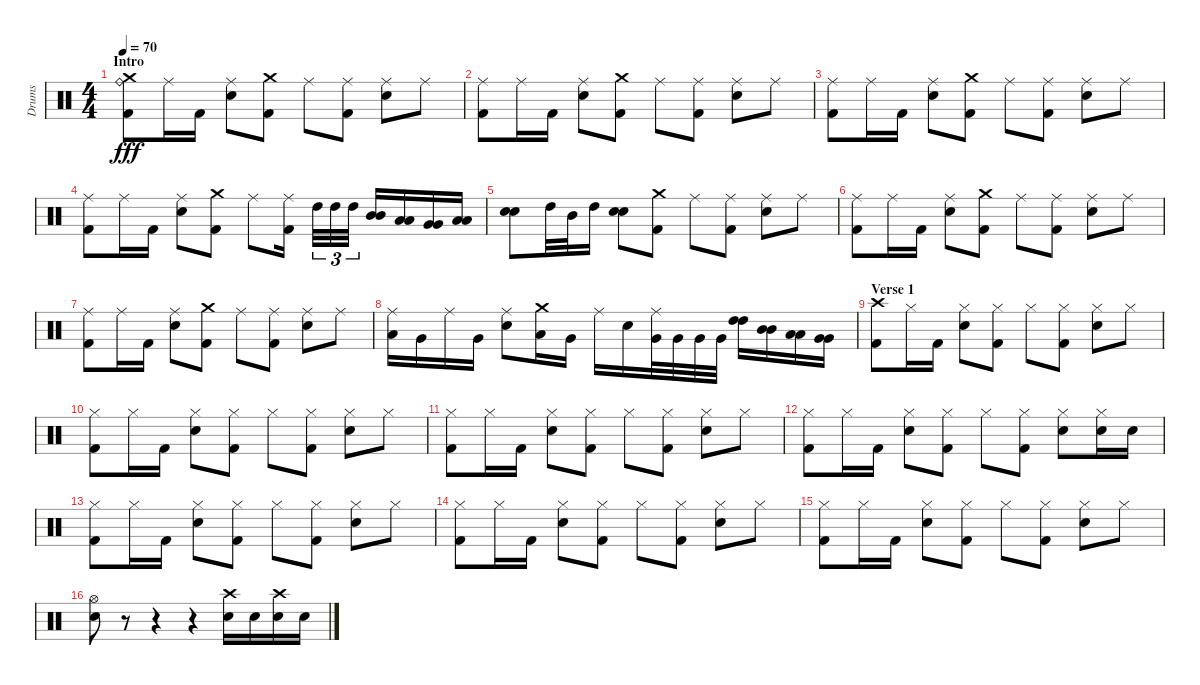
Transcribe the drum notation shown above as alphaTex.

\track ("Drums" "Drums") {instrument percussion}
\staff {score}
\articulation defaults
\ts (4 4)
\section ("" "Intro")
\tempo 70
\clef neutral
\ks c
("Crash medium (hit)" "Ride (bell)" "Kick (hit) 2").8{dy fff} "Ride (middle)".16 "Kick (hit) 2".16 ("Ride (middle)" "Electric Snare (hit)").8 ("Crash medium (hit)" "Kick (hit) 2").8 "Ride (middle)".8 ("Ride (middle)" "Kick (hit) 2").8 ("Ride (middle)" "Electric Snare (hit)").8 "Ride (middle)".8 |
("Ride (middle)" "Kick (hit) 2").8 "Ride (middle)".16 "Kick (hit) 2".16 ("Ride (middle)" "Electric Snare (hit)").8 ("Crash medium (hit)" "Kick (hit) 2").8 "Ride (middle)".8 ("Ride (middle)" "Kick (hit) 2").8 ("Ride (middle)" "Electric Snare (hit)").8 "Ride (middle)".8 |
("Ride (middle)" "Kick (hit) 2").8 "Ride (middle)".16 "Kick (hit) 2".16 ("Ride (middle)" "Electric Snare (hit)").8 ("Crash medium (hit)" "Kick (hit) 2").8 "Ride (middle)".8 ("Ride (middle)" "Kick (hit) 2").8 ("Ride (middle)" "Electric Snare (hit)").8 "Ride (middle)".8 |
("Ride (middle)" "Kick (hit) 2").8 "Ride (middle)".16 "Kick (hit) 2".16 ("Ride (middle)" "Electric Snare (hit)").8 ("Crash medium (hit)" "Kick (hit) 2").8 "Ride (middle)".8 ("Ride (middle)" "Kick (hit) 2").16 "High Tom (hit)".32{tu (3 2)} "High Tom (hit)".32{tu (3 2)} "High Tom (hit)".32{tu (3 2)} ("Mid Tom (hit)" "Mid Tom (hit)").16 ("Low Tom (hit)" "Low Tom (hit)").16 ("Very Low Tom (hit)" "Very Low Tom (hit)").16 ("Low Floor Tom (hit)" "Low Floor Tom (hit)").16 |
("Electric Snare (hit)" "Electric Snare (hit)").8 "High Tom (hit)".32 "Mid Tom (hit)".32 "High Tom (hit)".16 ("Electric Snare (hit)" "Electric Snare (hit)").8 ("Crash medium (hit)" "Kick (hit) 2").8 "Ride (middle)".8 ("Ride (middle)" "Kick (hit) 2").8 ("Ride (middle)" "Electric Snare (hit)").8 "Ride (middle)".8 |
("Ride (middle)" "Kick (hit) 2").8 "Ride (middle)".16 "Kick (hit) 2".16 ("Ride (middle)" "Electric Snare (hit)").8 ("Crash medium (hit)" "Kick (hit) 2").8 "Ride (middle)".8 ("Ride (middle)" "Kick (hit) 2").8 ("Ride (middle)" "Electric Snare (hit)").8 "Ride (middle)".8 |
("Ride (middle)" "Kick (hit) 2").8 "Ride (middle)".16 "Kick (hit) 2".16 ("Ride (middle)" "Electric Snare (hit)").8 ("Crash medium (hit)" "Kick (hit) 2").8 "Ride (middle)".8 ("Ride (middle)" "Kick (hit) 2").8 ("Ride (middle)" "Electric Snare (hit)").8 "Ride (middle)".8 |
("Low Tom (hit)" "Ride (middle)").16 "Very Low Tom (hit)".16 "Ride (middle)".16 "Very Low Tom (hit)".16 ("Ride (middle)" "Electric Snare (hit)").8 ("Crash medium (hit)" "Low Tom (hit)").16 "Very Low Tom (hit)".16 "Ride (middle)".16 "Electric Snare (hit)".16 ("Very Low Tom (hit)" "Ride (middle)").32 "Very Low Tom (hit)".32 "Very Low Tom (hit)".32 "Very Low Tom (hit)".32 ("High Tom (hit)" "High Tom (hit)").16 ("Mid Tom (hit)" "Mid Tom (hit)").16 ("Low Tom (hit)" "Low Tom (hit)").16 ("Very Low Tom (hit)" "Very Low Tom (hit)").16 |
\section ("" "Verse 1")
("Crash high (hit)" "Kick (hit) 2").8 "Hi-Hat (closed)".16 "Kick (hit) 2".16 ("Hi-Hat (closed)" "Electric Snare (hit)").8 ("Hi-Hat (closed)" "Kick (hit) 2").8 "Hi-Hat (closed)".8 ("Hi-Hat (closed)" "Kick (hit) 2").8 ("Hi-Hat (closed)" "Electric Snare (hit)").8 "Hi-Hat (closed)".8 |
("Hi-Hat (closed)" "Kick (hit) 2").8 "Hi-Hat (closed)".16 "Kick (hit) 2".16 ("Hi-Hat (closed)" "Electric Snare (hit)").8 ("Hi-Hat (closed)" "Kick (hit) 2").8 "Hi-Hat (closed)".8 ("Hi-Hat (closed)" "Kick (hit) 2").8 ("Hi-Hat (closed)" "Electric Snare (hit)").8 "Hi-Hat (closed)".8 |
("Hi-Hat (closed)" "Kick (hit) 2").8 "Hi-Hat (closed)".16 "Kick (hit) 2".16 ("Hi-Hat (closed)" "Electric Snare (hit)").8 ("Hi-Hat (closed)" "Kick (hit) 2").8 "Hi-Hat (closed)".8 ("Hi-Hat (closed)" "Kick (hit) 2").8 ("Hi-Hat (closed)" "Electric Snare (hit)").8 "Hi-Hat (closed)".8 |
("Hi-Hat (closed)" "Kick (hit) 2").8 "Hi-Hat (closed)".16 "Kick (hit) 2".16 ("Hi-Hat (closed)" "Electric Snare (hit)").8 ("Hi-Hat (closed)" "Kick (hit) 2").8 "Hi-Hat (closed)".8 ("Hi-Hat (closed)" "Kick (hit) 2").8 ("Hi-Hat (closed)" "Electric Snare (hit)").8 ("Hi-Hat (closed)" "Electric Snare (hit)").16 "Electric Snare (hit)".16 |
("Hi-Hat (closed)" "Kick (hit) 2").8 "Hi-Hat (closed)".16 "Kick (hit) 2".16 ("Hi-Hat (closed)" "Electric Snare (hit)").8 ("Hi-Hat (closed)" "Kick (hit) 2").8 "Hi-Hat (closed)".8 ("Hi-Hat (closed)" "Kick (hit) 2").8 ("Hi-Hat (closed)" "Electric Snare (hit)").8 "Hi-Hat (closed)".8 |
("Hi-Hat (closed)" "Kick (hit) 2").8 "Hi-Hat (closed)".16 "Kick (hit) 2".16 ("Hi-Hat (closed)" "Electric Snare (hit)").8 ("Hi-Hat (closed)" "Kick (hit) 2").8 "Hi-Hat (closed)".8 ("Hi-Hat (closed)" "Kick (hit) 2").8 ("Hi-Hat (closed)" "Electric Snare (hit)").8 "Hi-Hat (closed)".8 |
("Hi-Hat (closed)" "Kick (hit) 2").8 "Hi-Hat (closed)".16 "Kick (hit) 2".16 ("Hi-Hat (closed)" "Electric Snare (hit)").8 ("Hi-Hat (closed)" "Kick (hit) 2").8 "Hi-Hat (closed)".8 ("Hi-Hat (closed)" "Kick (hit) 2").8 ("Hi-Hat (closed)" "Electric Snare (hit)").8 "Hi-Hat (closed)".8 |
("Hi-Hat (open)" "Electric Snare (hit)").8 r.8 r.4 r.4 ("Crash high (hit)" "Electric Snare (hit)").16 "Electric Snare (hit)".16 ("Crash high (hit)" "Electric Snare (hit)").16 "Electric Snare (hit)".16
